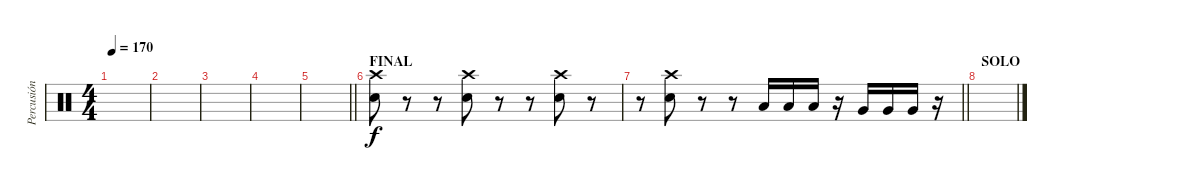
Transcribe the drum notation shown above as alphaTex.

\track ("Percusión" "Percusión") {instrument percussion}
\staff {score}
\articulation defaults
\ts (4 4)
\tempo 170
\clef neutral
\ks c
|
|
|
|
\barLineRight lightlight
|
\section ("" "FINAL")
("Snare (hit) 2" "Crash high (hit)").8 r.8 r.8 ("Crash high (hit)" "Snare (hit) 2").8 r.8 r.8 ("Crash high (hit)" "Snare (hit) 2").8 r.8 |
\barLineRight lightlight
r.8 ("Crash high (hit)" "Snare (hit) 2").8 r.8 r.8 "Low Tom (hit)".16 "Low Tom (hit)".16 "Low Tom (hit)".16 r.16 "Very Low Tom (hit)".16 "Very Low Tom (hit)".16 "Very Low Tom (hit)".16 r.16 |
\section ("" "SOLO")
